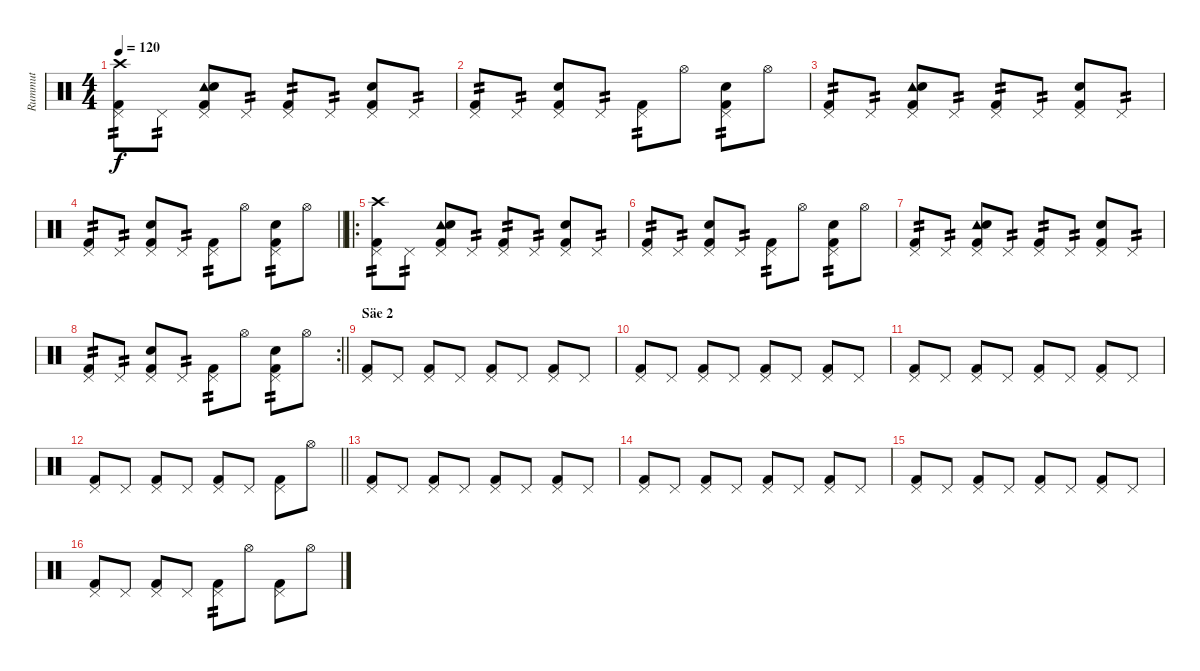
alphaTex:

\track ("Rummut" "Rummut") {instrument percussion}
\staff {score}
\articulation defaults
\ts (4 4)
\tempo 120
\clef neutral
\ks c
("Crash high (hit)" "Pedal Hi-Hat (hit)" "Kick (hit) 2").8{tp 2 dy f} "Pedal Hi-Hat (hit)".8{tp 2} ("Tambourine (hit)" "Pedal Hi-Hat (hit)" "Snare (hit) 2" "Kick (hit) 2").8 "Pedal Hi-Hat (hit)".8{tp 2} ("Pedal Hi-Hat (hit)" "Kick (hit) 2").8{tp 2} "Pedal Hi-Hat (hit)".8{tp 2} ("Pedal Hi-Hat (hit)" "Snare (hit) 2" "Kick (hit) 2").8 "Pedal Hi-Hat (hit)".8{tp 2} |
("Pedal Hi-Hat (hit)" "Kick (hit) 2").8{tp 2} "Pedal Hi-Hat (hit)".8{tp 2} ("Pedal Hi-Hat (hit)" "Snare (hit) 2" "Kick (hit) 2").8 "Pedal Hi-Hat (hit)".8{tp 2} ("Pedal Hi-Hat (hit)" "Kick (hit) 2").8{tp 2} "Hi-Hat (open)".8 ("Pedal Hi-Hat (hit)" "Snare (hit) 2" "Kick (hit) 2").8{tp 2} "Hi-Hat (open)".8 |
("Pedal Hi-Hat (hit)" "Kick (hit) 2").8{tp 2} "Pedal Hi-Hat (hit)".8{tp 2} ("Tambourine (hit)" "Pedal Hi-Hat (hit)" "Snare (hit) 2" "Kick (hit) 2").8 "Pedal Hi-Hat (hit)".8{tp 2} ("Pedal Hi-Hat (hit)" "Kick (hit) 2").8{tp 2} "Pedal Hi-Hat (hit)".8{tp 2} ("Pedal Hi-Hat (hit)" "Snare (hit) 2" "Kick (hit) 2").8 "Pedal Hi-Hat (hit)".8{tp 2} |
\barLineRight lightlight
("Pedal Hi-Hat (hit)" "Kick (hit) 2").8{tp 2} "Pedal Hi-Hat (hit)".8{tp 2} ("Pedal Hi-Hat (hit)" "Snare (hit) 2" "Kick (hit) 2").8 "Pedal Hi-Hat (hit)".8{tp 2} ("Pedal Hi-Hat (hit)" "Kick (hit) 2").8{tp 2} "Hi-Hat (open)".8 ("Pedal Hi-Hat (hit)" "Snare (hit) 2" "Kick (hit) 2").8{tp 2} "Hi-Hat (open)".8 |
\ro
("Crash high (hit)" "Pedal Hi-Hat (hit)" "Kick (hit) 2").8{tp 2} "Pedal Hi-Hat (hit)".8{tp 2} ("Tambourine (hit)" "Pedal Hi-Hat (hit)" "Snare (hit) 2" "Kick (hit) 2").8 "Pedal Hi-Hat (hit)".8{tp 2} ("Pedal Hi-Hat (hit)" "Kick (hit) 2").8{tp 2} "Pedal Hi-Hat (hit)".8{tp 2} ("Pedal Hi-Hat (hit)" "Snare (hit) 2" "Kick (hit) 2").8 "Pedal Hi-Hat (hit)".8{tp 2} |
("Pedal Hi-Hat (hit)" "Kick (hit) 2").8{tp 2} "Pedal Hi-Hat (hit)".8{tp 2} ("Pedal Hi-Hat (hit)" "Snare (hit) 2" "Kick (hit) 2").8 "Pedal Hi-Hat (hit)".8{tp 2} ("Pedal Hi-Hat (hit)" "Kick (hit) 2").8{tp 2} "Hi-Hat (open)".8 ("Pedal Hi-Hat (hit)" "Snare (hit) 2" "Kick (hit) 2").8{tp 2} "Hi-Hat (open)".8 |
("Pedal Hi-Hat (hit)" "Kick (hit) 2").8{tp 2} "Pedal Hi-Hat (hit)".8{tp 2} ("Tambourine (hit)" "Pedal Hi-Hat (hit)" "Snare (hit) 2" "Kick (hit) 2").8 "Pedal Hi-Hat (hit)".8{tp 2} ("Pedal Hi-Hat (hit)" "Kick (hit) 2").8{tp 2} "Pedal Hi-Hat (hit)".8{tp 2} ("Pedal Hi-Hat (hit)" "Snare (hit) 2" "Kick (hit) 2").8 "Pedal Hi-Hat (hit)".8{tp 2} |
\rc 2
\barLineRight lightlight
("Pedal Hi-Hat (hit)" "Kick (hit) 2").8{tp 2} "Pedal Hi-Hat (hit)".8{tp 2} ("Pedal Hi-Hat (hit)" "Snare (hit) 2" "Kick (hit) 2").8 "Pedal Hi-Hat (hit)".8{tp 2} ("Pedal Hi-Hat (hit)" "Kick (hit) 2").8{tp 2} "Hi-Hat (open)".8 ("Pedal Hi-Hat (hit)" "Snare (hit) 2" "Kick (hit) 2").8{tp 2} "Hi-Hat (open)".8 |
\section ("" "Säe 2")
("Pedal Hi-Hat (hit)" "Kick (hit) 2").8 "Pedal Hi-Hat (hit)".8 ("Pedal Hi-Hat (hit)" "Kick (hit) 2").8 "Pedal Hi-Hat (hit)".8 ("Pedal Hi-Hat (hit)" "Kick (hit) 2").8 "Pedal Hi-Hat (hit)".8 ("Pedal Hi-Hat (hit)" "Kick (hit) 2").8 "Pedal Hi-Hat (hit)".8 |
("Pedal Hi-Hat (hit)" "Kick (hit) 2").8 "Pedal Hi-Hat (hit)".8 ("Pedal Hi-Hat (hit)" "Kick (hit) 2").8 "Pedal Hi-Hat (hit)".8 ("Pedal Hi-Hat (hit)" "Kick (hit) 2").8 "Pedal Hi-Hat (hit)".8 ("Pedal Hi-Hat (hit)" "Kick (hit) 2").8 "Pedal Hi-Hat (hit)".8 |
("Pedal Hi-Hat (hit)" "Kick (hit) 2").8 "Pedal Hi-Hat (hit)".8 ("Pedal Hi-Hat (hit)" "Kick (hit) 2").8 "Pedal Hi-Hat (hit)".8 ("Pedal Hi-Hat (hit)" "Kick (hit) 2").8 "Pedal Hi-Hat (hit)".8 ("Pedal Hi-Hat (hit)" "Kick (hit) 2").8 "Pedal Hi-Hat (hit)".8 |
\barLineRight lightlight
("Pedal Hi-Hat (hit)" "Kick (hit) 2").8 "Pedal Hi-Hat (hit)".8 ("Pedal Hi-Hat (hit)" "Kick (hit) 2").8 "Pedal Hi-Hat (hit)".8 ("Pedal Hi-Hat (hit)" "Kick (hit) 2").8 "Pedal Hi-Hat (hit)".8 ("Pedal Hi-Hat (hit)" "Kick (hit) 2").8 "Hi-Hat (open)".8 |
("Pedal Hi-Hat (hit)" "Kick (hit) 2").8 "Pedal Hi-Hat (hit)".8 ("Pedal Hi-Hat (hit)" "Kick (hit) 2").8 "Pedal Hi-Hat (hit)".8 ("Pedal Hi-Hat (hit)" "Kick (hit) 2").8 "Pedal Hi-Hat (hit)".8 ("Pedal Hi-Hat (hit)" "Kick (hit) 2").8 "Pedal Hi-Hat (hit)".8 |
("Pedal Hi-Hat (hit)" "Kick (hit) 2").8 "Pedal Hi-Hat (hit)".8 ("Pedal Hi-Hat (hit)" "Kick (hit) 2").8 "Pedal Hi-Hat (hit)".8 ("Pedal Hi-Hat (hit)" "Kick (hit) 2").8 "Pedal Hi-Hat (hit)".8 ("Pedal Hi-Hat (hit)" "Kick (hit) 2").8 "Pedal Hi-Hat (hit)".8 |
("Pedal Hi-Hat (hit)" "Kick (hit) 2").8 "Pedal Hi-Hat (hit)".8 ("Pedal Hi-Hat (hit)" "Kick (hit) 2").8 "Pedal Hi-Hat (hit)".8 ("Pedal Hi-Hat (hit)" "Kick (hit) 2").8 "Pedal Hi-Hat (hit)".8 ("Pedal Hi-Hat (hit)" "Kick (hit) 2").8 "Pedal Hi-Hat (hit)".8 |
("Pedal Hi-Hat (hit)" "Kick (hit) 2").8 "Pedal Hi-Hat (hit)".8 ("Pedal Hi-Hat (hit)" "Kick (hit) 2").8 "Pedal Hi-Hat (hit)".8 ("Pedal Hi-Hat (hit)" "Kick (hit) 2").8{tp 2} "Hi-Hat (open)".8 ("Pedal Hi-Hat (hit)" "Kick (hit) 2").8 "Hi-Hat (open)".8
